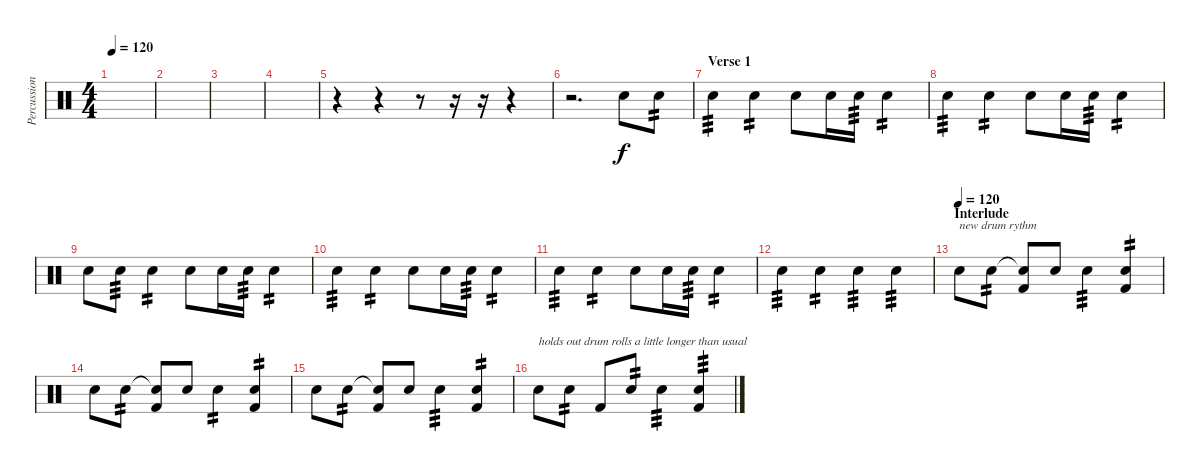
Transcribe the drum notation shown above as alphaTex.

\track ("Percussion" "Percussion") {instrument percussion}
\staff {score}
\articulation defaults
\ts (4 4)
\tempo 120
\clef neutral
\ks c
|
|
|
|
r.4 r.4 r.8 r.16 r.16 r.4 |
r.2{d volume 10} "Electric Snare (hit)".8 "Electric Snare (hit)".8{tp 2} |
\section ("" "Verse 1")
"Electric Snare (hit)".4{tp 3 volume 10} "Electric Snare (hit)".4{tp 2} "Electric Snare (hit)".8 "Electric Snare (hit)".16 "Electric Snare (hit)".16{tp 3} "Electric Snare (hit)".4{tp 2 volume 8} |
"Electric Snare (hit)".4{tp 3 volume 11} "Electric Snare (hit)".4{tp 2} "Electric Snare (hit)".8 "Electric Snare (hit)".16 "Electric Snare (hit)".16{tp 3} "Electric Snare (hit)".4{tp 2} |
"Electric Snare (hit)".8 "Electric Snare (hit)".8{tp 3 volume 11} "Electric Snare (hit)".4{tp 2} "Electric Snare (hit)".8 "Electric Snare (hit)".16 "Electric Snare (hit)".16{tp 3} "Electric Snare (hit)".4{tp 2 volume 8} |
"Electric Snare (hit)".4{tp 3 volume 10} "Electric Snare (hit)".4{tp 2} "Electric Snare (hit)".8 "Electric Snare (hit)".16 "Electric Snare (hit)".16{tp 3} "Electric Snare (hit)".4{tp 2 volume 5} |
"Electric Snare (hit)".4{tp 3 volume 10} "Electric Snare (hit)".4{tp 2} "Electric Snare (hit)".8 "Electric Snare (hit)".16 "Electric Snare (hit)".16{tp 3} "Electric Snare (hit)".4{tp 2 volume 5} |
"Electric Snare (hit)".4{tp 3 volume 10} "Electric Snare (hit)".4{tp 2} "Electric Snare (hit)".4{tp 3 volume 5} "Electric Snare (hit)".4{tp 3 volume 10} |
\section ("" "Interlude")
\tempo (120)
"Electric Snare (hit)".8{txt "new drum rythm"} "Electric Snare (hit)".8{tp 2} ("Snare (hit)"{t} "Kick (hit) 2").8 "Electric Snare (hit)".8{volume 6} "Electric Snare (hit)".4{tp 3 volume 11} ("Electric Snare (hit)" "Kick (hit) 2").4{tp 2} |
"Electric Snare (hit)".8 "Electric Snare (hit)".8{tp 2} ("Snare (hit)"{t} "Kick (hit) 2").8 "Electric Snare (hit)".8{volume 6} "Electric Snare (hit)".4{tp 2 volume 11} ("Electric Snare (hit)" "Kick (hit) 2").4{tp 2} |
"Electric Snare (hit)".8 "Electric Snare (hit)".8{tp 2} ("Snare (hit)"{t} "Kick (hit) 2").8 "Electric Snare (hit)".8{volume 6} "Electric Snare (hit)".4{tp 3 volume 11} ("Electric Snare (hit)" "Kick (hit) 2").4{tp 2} |
"Electric Snare (hit)".8{txt "holds out drum rolls a little longer than usual"} "Electric Snare (hit)".8{tp 2} "Kick (hit) 2".8 "Electric Snare (hit)".8{tp 2 volume 6} "Electric Snare (hit)".4{tp 3 volume 11} ("Electric Snare (hit)" "Kick (hit) 2").4{tp 3}
